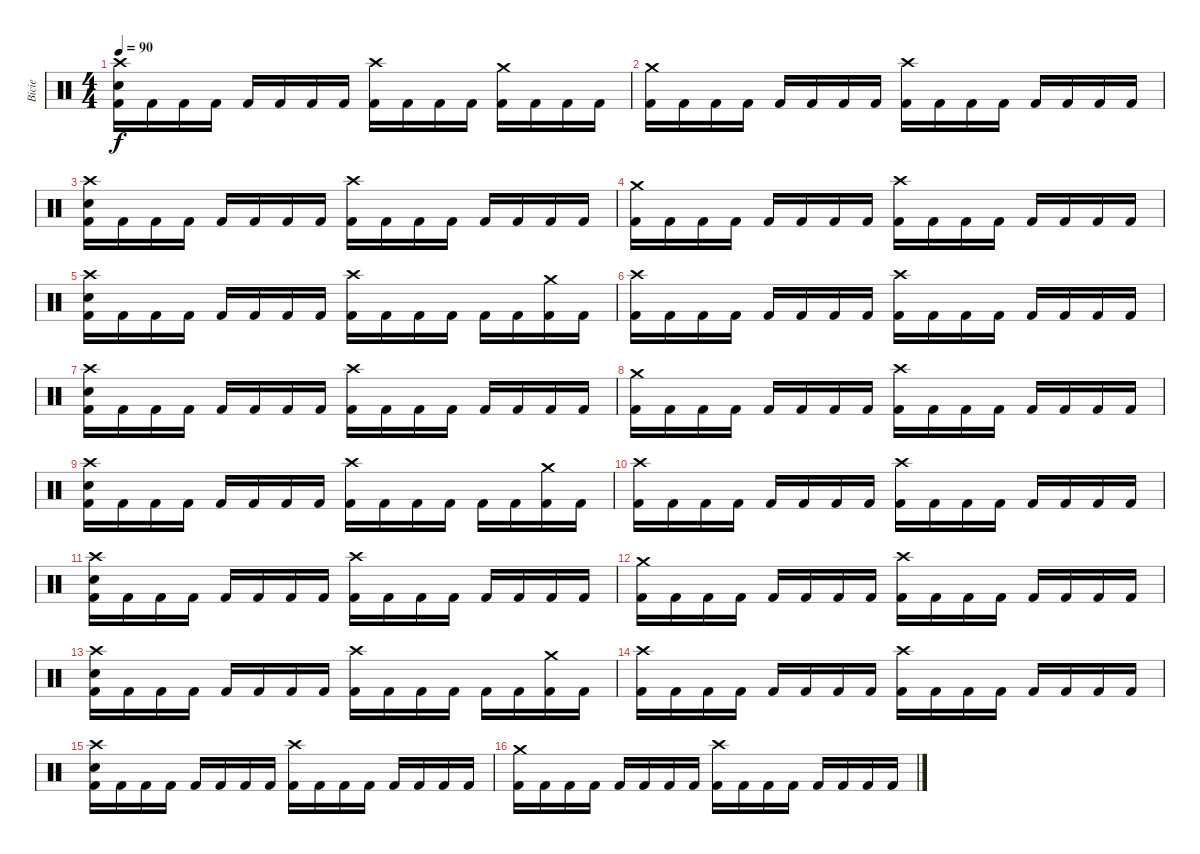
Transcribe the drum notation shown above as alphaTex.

\track ("Bicie" "Bicie") {instrument percussion}
\staff {score}
\articulation defaults
\ts (4 4)
\tempo 90
\clef neutral
\ks c
("Crash high (hit)" "Electric Snare (hit)" "Kick (hit) 2").16{dy f} "Kick (hit) 2".16 "Kick (hit) 2".16 "Kick (hit) 2".16 "Kick (hit) 2".16 "Kick (hit) 2".16 "Kick (hit) 2".16 "Kick (hit) 2".16 ("Crash high (hit)" "Kick (hit) 2").16 "Kick (hit) 2".16 "Kick (hit) 2".16 "Kick (hit) 2".16 ("Crash medium (hit)" "Kick (hit) 2").16 "Kick (hit) 2".16 "Kick (hit) 2".16 "Kick (hit) 2".16 |
("Crash medium (hit)" "Kick (hit) 2").16 "Kick (hit) 2".16 "Kick (hit) 2".16 "Kick (hit) 2".16 "Kick (hit) 2".16 "Kick (hit) 2".16 "Kick (hit) 2".16 "Kick (hit) 2".16 ("Crash high (hit)" "Kick (hit) 2").16 "Kick (hit) 2".16 "Kick (hit) 2".16 "Kick (hit) 2".16 "Kick (hit) 2".16 "Kick (hit) 2".16 "Kick (hit) 2".16 "Kick (hit) 2".16 |
("Crash high (hit)" "Electric Snare (hit)" "Kick (hit) 2").16 "Kick (hit) 2".16 "Kick (hit) 2".16 "Kick (hit) 2".16 "Kick (hit) 2".16 "Kick (hit) 2".16 "Kick (hit) 2".16 "Kick (hit) 2".16 ("Crash high (hit)" "Kick (hit) 2").16 "Kick (hit) 2".16 "Kick (hit) 2".16 "Kick (hit) 2".16 "Kick (hit) 2".16 "Kick (hit) 2".16 "Kick (hit) 2".16 "Kick (hit) 2".16 |
("Crash medium (hit)" "Kick (hit) 2").16 "Kick (hit) 2".16 "Kick (hit) 2".16 "Kick (hit) 2".16 "Kick (hit) 2".16 "Kick (hit) 2".16 "Kick (hit) 2".16 "Kick (hit) 2".16 ("Crash high (hit)" "Kick (hit) 2").16 "Kick (hit) 2".16 "Kick (hit) 2".16 "Kick (hit) 2".16 "Kick (hit) 2".16 "Kick (hit) 2".16 "Kick (hit) 2".16 "Kick (hit) 2".16 |
("Crash high (hit)" "Electric Snare (hit)" "Kick (hit) 2").16 "Kick (hit) 2".16 "Kick (hit) 2".16 "Kick (hit) 2".16 "Kick (hit) 2".16 "Kick (hit) 2".16 "Kick (hit) 2".16 "Kick (hit) 2".16 ("Crash high (hit)" "Kick (hit) 2").16 "Kick (hit) 2".16 "Kick (hit) 2".16 "Kick (hit) 2".16 "Kick (hit) 2".16 "Kick (hit) 2".16 ("Crash medium (hit)" "Kick (hit) 2").16 "Kick (hit) 2".16 |
("Crash high (hit)" "Kick (hit) 2").16 "Kick (hit) 2".16 "Kick (hit) 2".16 "Kick (hit) 2".16 "Kick (hit) 2".16 "Kick (hit) 2".16 "Kick (hit) 2".16 "Kick (hit) 2".16 ("Crash high (hit)" "Kick (hit) 2").16 "Kick (hit) 2".16 "Kick (hit) 2".16 "Kick (hit) 2".16 "Kick (hit) 2".16 "Kick (hit) 2".16 "Kick (hit) 2".16 "Kick (hit) 2".16 |
("Crash high (hit)" "Electric Snare (hit)" "Kick (hit) 2").16 "Kick (hit) 2".16 "Kick (hit) 2".16 "Kick (hit) 2".16 "Kick (hit) 2".16 "Kick (hit) 2".16 "Kick (hit) 2".16 "Kick (hit) 2".16 ("Crash high (hit)" "Kick (hit) 2").16 "Kick (hit) 2".16 "Kick (hit) 2".16 "Kick (hit) 2".16 "Kick (hit) 2".16 "Kick (hit) 2".16 "Kick (hit) 2".16 "Kick (hit) 2".16 |
("Crash medium (hit)" "Kick (hit) 2").16 "Kick (hit) 2".16 "Kick (hit) 2".16 "Kick (hit) 2".16 "Kick (hit) 2".16 "Kick (hit) 2".16 "Kick (hit) 2".16 "Kick (hit) 2".16 ("Crash high (hit)" "Kick (hit) 2").16 "Kick (hit) 2".16 "Kick (hit) 2".16 "Kick (hit) 2".16 "Kick (hit) 2".16 "Kick (hit) 2".16 "Kick (hit) 2".16 "Kick (hit) 2".16 |
("Crash high (hit)" "Electric Snare (hit)" "Kick (hit) 2").16 "Kick (hit) 2".16 "Kick (hit) 2".16 "Kick (hit) 2".16 "Kick (hit) 2".16 "Kick (hit) 2".16 "Kick (hit) 2".16 "Kick (hit) 2".16 ("Crash high (hit)" "Kick (hit) 2").16 "Kick (hit) 2".16 "Kick (hit) 2".16 "Kick (hit) 2".16 "Kick (hit) 2".16 "Kick (hit) 2".16 ("Crash medium (hit)" "Kick (hit) 2").16 "Kick (hit) 2".16 |
("Crash high (hit)" "Kick (hit) 2").16 "Kick (hit) 2".16 "Kick (hit) 2".16 "Kick (hit) 2".16 "Kick (hit) 2".16 "Kick (hit) 2".16 "Kick (hit) 2".16 "Kick (hit) 2".16 ("Crash high (hit)" "Kick (hit) 2").16 "Kick (hit) 2".16 "Kick (hit) 2".16 "Kick (hit) 2".16 "Kick (hit) 2".16 "Kick (hit) 2".16 "Kick (hit) 2".16 "Kick (hit) 2".16 |
("Crash high (hit)" "Electric Snare (hit)" "Kick (hit) 2").16 "Kick (hit) 2".16 "Kick (hit) 2".16 "Kick (hit) 2".16 "Kick (hit) 2".16 "Kick (hit) 2".16 "Kick (hit) 2".16 "Kick (hit) 2".16 ("Crash high (hit)" "Kick (hit) 2").16 "Kick (hit) 2".16 "Kick (hit) 2".16 "Kick (hit) 2".16 "Kick (hit) 2".16 "Kick (hit) 2".16 "Kick (hit) 2".16 "Kick (hit) 2".16 |
("Crash medium (hit)" "Kick (hit) 2").16 "Kick (hit) 2".16 "Kick (hit) 2".16 "Kick (hit) 2".16 "Kick (hit) 2".16 "Kick (hit) 2".16 "Kick (hit) 2".16 "Kick (hit) 2".16 ("Crash high (hit)" "Kick (hit) 2").16 "Kick (hit) 2".16 "Kick (hit) 2".16 "Kick (hit) 2".16 "Kick (hit) 2".16 "Kick (hit) 2".16 "Kick (hit) 2".16 "Kick (hit) 2".16 |
("Crash high (hit)" "Electric Snare (hit)" "Kick (hit) 2").16 "Kick (hit) 2".16 "Kick (hit) 2".16 "Kick (hit) 2".16 "Kick (hit) 2".16 "Kick (hit) 2".16 "Kick (hit) 2".16 "Kick (hit) 2".16 ("Crash high (hit)" "Kick (hit) 2").16 "Kick (hit) 2".16 "Kick (hit) 2".16 "Kick (hit) 2".16 "Kick (hit) 2".16 "Kick (hit) 2".16 ("Crash medium (hit)" "Kick (hit) 2").16 "Kick (hit) 2".16 |
("Crash high (hit)" "Kick (hit) 2").16 "Kick (hit) 2".16 "Kick (hit) 2".16 "Kick (hit) 2".16 "Kick (hit) 2".16 "Kick (hit) 2".16 "Kick (hit) 2".16 "Kick (hit) 2".16 ("Crash high (hit)" "Kick (hit) 2").16 "Kick (hit) 2".16 "Kick (hit) 2".16 "Kick (hit) 2".16 "Kick (hit) 2".16 "Kick (hit) 2".16 "Kick (hit) 2".16 "Kick (hit) 2".16 |
("Crash high (hit)" "Electric Snare (hit)" "Kick (hit) 2").16 "Kick (hit) 2".16 "Kick (hit) 2".16 "Kick (hit) 2".16 "Kick (hit) 2".16 "Kick (hit) 2".16 "Kick (hit) 2".16 "Kick (hit) 2".16 ("Crash high (hit)" "Kick (hit) 2").16 "Kick (hit) 2".16 "Kick (hit) 2".16 "Kick (hit) 2".16 "Kick (hit) 2".16 "Kick (hit) 2".16 "Kick (hit) 2".16 "Kick (hit) 2".16 |
("Crash medium (hit)" "Kick (hit) 2").16 "Kick (hit) 2".16 "Kick (hit) 2".16 "Kick (hit) 2".16 "Kick (hit) 2".16 "Kick (hit) 2".16 "Kick (hit) 2".16 "Kick (hit) 2".16 ("Crash high (hit)" "Kick (hit) 2").16 "Kick (hit) 2".16 "Kick (hit) 2".16 "Kick (hit) 2".16 "Kick (hit) 2".16 "Kick (hit) 2".16 "Kick (hit) 2".16 "Kick (hit) 2".16
